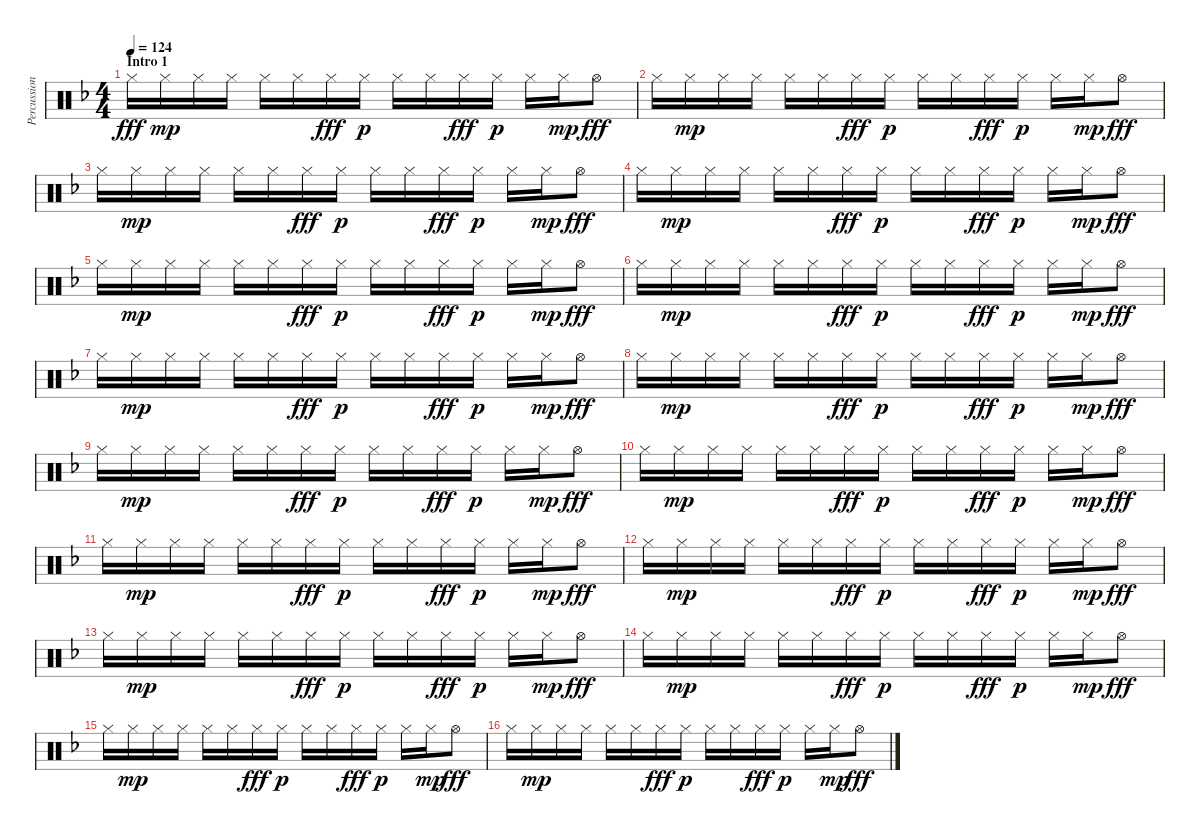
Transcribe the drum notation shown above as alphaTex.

\track ("Percussion" "Percussion") {instrument percussion}
\staff {score}
\articulation defaults
\ts (4 4)
\section ("" "Intro 1")
\tempo 124
\clef neutral
\ks f "Hi-Hat (closed)".16{dy fff} "Hi-Hat (closed)".16{dy mp} "Hi-Hat (closed)".16 "Hi-Hat (closed)".16 "Hi-Hat (closed)".16 "Hi-Hat (closed)".16 "Hi-Hat (closed)".16{dy fff} "Hi-Hat (closed)".16{dy p} "Hi-Hat (closed)".16 "Hi-Hat (closed)".16 "Hi-Hat (closed)".16{dy fff} "Hi-Hat (closed)".16{dy p} "Hi-Hat (closed)".16 "Hi-Hat (closed)".16{dy mp} "Hi-Hat (open)".8{dy fff}
|
"Hi-Hat (closed)".16 "Hi-Hat (closed)".16{dy mp} "Hi-Hat (closed)".16 "Hi-Hat (closed)".16 "Hi-Hat (closed)".16 "Hi-Hat (closed)".16 "Hi-Hat (closed)".16{dy fff} "Hi-Hat (closed)".16{dy p} "Hi-Hat (closed)".16 "Hi-Hat (closed)".16 "Hi-Hat (closed)".16{dy fff} "Hi-Hat (closed)".16{dy p} "Hi-Hat (closed)".16 "Hi-Hat (closed)".16{dy mp} "Hi-Hat (open)".8{dy fff} |
"Hi-Hat (closed)".16 "Hi-Hat (closed)".16{dy mp} "Hi-Hat (closed)".16 "Hi-Hat (closed)".16 "Hi-Hat (closed)".16 "Hi-Hat (closed)".16 "Hi-Hat (closed)".16{dy fff} "Hi-Hat (closed)".16{dy p} "Hi-Hat (closed)".16 "Hi-Hat (closed)".16 "Hi-Hat (closed)".16{dy fff} "Hi-Hat (closed)".16{dy p} "Hi-Hat (closed)".16 "Hi-Hat (closed)".16{dy mp} "Hi-Hat (open)".8{dy fff} |
"Hi-Hat (closed)".16 "Hi-Hat (closed)".16{dy mp} "Hi-Hat (closed)".16 "Hi-Hat (closed)".16 "Hi-Hat (closed)".16 "Hi-Hat (closed)".16 "Hi-Hat (closed)".16{dy fff} "Hi-Hat (closed)".16{dy p} "Hi-Hat (closed)".16 "Hi-Hat (closed)".16 "Hi-Hat (closed)".16{dy fff} "Hi-Hat (closed)".16{dy p} "Hi-Hat (closed)".16 "Hi-Hat (closed)".16{dy mp} "Hi-Hat (open)".8{dy fff} |
"Hi-Hat (closed)".16 "Hi-Hat (closed)".16{dy mp} "Hi-Hat (closed)".16 "Hi-Hat (closed)".16 "Hi-Hat (closed)".16 "Hi-Hat (closed)".16 "Hi-Hat (closed)".16{dy fff} "Hi-Hat (closed)".16{dy p} "Hi-Hat (closed)".16 "Hi-Hat (closed)".16 "Hi-Hat (closed)".16{dy fff} "Hi-Hat (closed)".16{dy p} "Hi-Hat (closed)".16 "Hi-Hat (closed)".16{dy mp} "Hi-Hat (open)".8{dy fff} |
"Hi-Hat (closed)".16 "Hi-Hat (closed)".16{dy mp} "Hi-Hat (closed)".16 "Hi-Hat (closed)".16 "Hi-Hat (closed)".16 "Hi-Hat (closed)".16 "Hi-Hat (closed)".16{dy fff} "Hi-Hat (closed)".16{dy p} "Hi-Hat (closed)".16 "Hi-Hat (closed)".16 "Hi-Hat (closed)".16{dy fff} "Hi-Hat (closed)".16{dy p} "Hi-Hat (closed)".16 "Hi-Hat (closed)".16{dy mp} "Hi-Hat (open)".8{dy fff} |
"Hi-Hat (closed)".16 "Hi-Hat (closed)".16{dy mp} "Hi-Hat (closed)".16 "Hi-Hat (closed)".16 "Hi-Hat (closed)".16 "Hi-Hat (closed)".16 "Hi-Hat (closed)".16{dy fff} "Hi-Hat (closed)".16{dy p} "Hi-Hat (closed)".16 "Hi-Hat (closed)".16 "Hi-Hat (closed)".16{dy fff} "Hi-Hat (closed)".16{dy p} "Hi-Hat (closed)".16 "Hi-Hat (closed)".16{dy mp} "Hi-Hat (open)".8{dy fff} |
"Hi-Hat (closed)".16 "Hi-Hat (closed)".16{dy mp} "Hi-Hat (closed)".16 "Hi-Hat (closed)".16 "Hi-Hat (closed)".16 "Hi-Hat (closed)".16 "Hi-Hat (closed)".16{dy fff} "Hi-Hat (closed)".16{dy p} "Hi-Hat (closed)".16 "Hi-Hat (closed)".16 "Hi-Hat (closed)".16{dy fff} "Hi-Hat (closed)".16{dy p} "Hi-Hat (closed)".16 "Hi-Hat (closed)".16{dy mp} "Hi-Hat (open)".8{dy fff} |
"Hi-Hat (closed)".16 "Hi-Hat (closed)".16{dy mp} "Hi-Hat (closed)".16 "Hi-Hat (closed)".16 "Hi-Hat (closed)".16 "Hi-Hat (closed)".16 "Hi-Hat (closed)".16{dy fff} "Hi-Hat (closed)".16{dy p} "Hi-Hat (closed)".16 "Hi-Hat (closed)".16 "Hi-Hat (closed)".16{dy fff} "Hi-Hat (closed)".16{dy p} "Hi-Hat (closed)".16 "Hi-Hat (closed)".16{dy mp} "Hi-Hat (open)".8{dy fff} |
"Hi-Hat (closed)".16 "Hi-Hat (closed)".16{dy mp} "Hi-Hat (closed)".16 "Hi-Hat (closed)".16 "Hi-Hat (closed)".16 "Hi-Hat (closed)".16 "Hi-Hat (closed)".16{dy fff} "Hi-Hat (closed)".16{dy p} "Hi-Hat (closed)".16 "Hi-Hat (closed)".16 "Hi-Hat (closed)".16{dy fff} "Hi-Hat (closed)".16{dy p} "Hi-Hat (closed)".16 "Hi-Hat (closed)".16{dy mp} "Hi-Hat (open)".8{dy fff} |
"Hi-Hat (closed)".16 "Hi-Hat (closed)".16{dy mp} "Hi-Hat (closed)".16 "Hi-Hat (closed)".16 "Hi-Hat (closed)".16 "Hi-Hat (closed)".16 "Hi-Hat (closed)".16{dy fff} "Hi-Hat (closed)".16{dy p} "Hi-Hat (closed)".16 "Hi-Hat (closed)".16 "Hi-Hat (closed)".16{dy fff} "Hi-Hat (closed)".16{dy p} "Hi-Hat (closed)".16 "Hi-Hat (closed)".16{dy mp} "Hi-Hat (open)".8{dy fff} |
"Hi-Hat (closed)".16 "Hi-Hat (closed)".16{dy mp} "Hi-Hat (closed)".16 "Hi-Hat (closed)".16 "Hi-Hat (closed)".16 "Hi-Hat (closed)".16 "Hi-Hat (closed)".16{dy fff} "Hi-Hat (closed)".16{dy p} "Hi-Hat (closed)".16 "Hi-Hat (closed)".16 "Hi-Hat (closed)".16{dy fff} "Hi-Hat (closed)".16{dy p} "Hi-Hat (closed)".16 "Hi-Hat (closed)".16{dy mp} "Hi-Hat (open)".8{dy fff} |
"Hi-Hat (closed)".16 "Hi-Hat (closed)".16{dy mp} "Hi-Hat (closed)".16 "Hi-Hat (closed)".16 "Hi-Hat (closed)".16 "Hi-Hat (closed)".16 "Hi-Hat (closed)".16{dy fff} "Hi-Hat (closed)".16{dy p} "Hi-Hat (closed)".16 "Hi-Hat (closed)".16 "Hi-Hat (closed)".16{dy fff} "Hi-Hat (closed)".16{dy p} "Hi-Hat (closed)".16 "Hi-Hat (closed)".16{dy mp} "Hi-Hat (open)".8{dy fff} |
"Hi-Hat (closed)".16 "Hi-Hat (closed)".16{dy mp} "Hi-Hat (closed)".16 "Hi-Hat (closed)".16 "Hi-Hat (closed)".16 "Hi-Hat (closed)".16 "Hi-Hat (closed)".16{dy fff} "Hi-Hat (closed)".16{dy p} "Hi-Hat (closed)".16 "Hi-Hat (closed)".16 "Hi-Hat (closed)".16{dy fff} "Hi-Hat (closed)".16{dy p} "Hi-Hat (closed)".16 "Hi-Hat (closed)".16{dy mp} "Hi-Hat (open)".8{dy fff} |
"Hi-Hat (closed)".16 "Hi-Hat (closed)".16{dy mp} "Hi-Hat (closed)".16 "Hi-Hat (closed)".16 "Hi-Hat (closed)".16 "Hi-Hat (closed)".16 "Hi-Hat (closed)".16{dy fff} "Hi-Hat (closed)".16{dy p} "Hi-Hat (closed)".16 "Hi-Hat (closed)".16 "Hi-Hat (closed)".16{dy fff} "Hi-Hat (closed)".16{dy p} "Hi-Hat (closed)".16 "Hi-Hat (closed)".16{dy mp} "Hi-Hat (open)".8{dy fff} |
"Hi-Hat (closed)".16 "Hi-Hat (closed)".16{dy mp} "Hi-Hat (closed)".16 "Hi-Hat (closed)".16 "Hi-Hat (closed)".16 "Hi-Hat (closed)".16 "Hi-Hat (closed)".16{dy fff} "Hi-Hat (closed)".16{dy p} "Hi-Hat (closed)".16 "Hi-Hat (closed)".16 "Hi-Hat (closed)".16{dy fff} "Hi-Hat (closed)".16{dy p} "Hi-Hat (closed)".16 "Hi-Hat (closed)".16{dy mp} "Hi-Hat (open)".8{dy fff}
